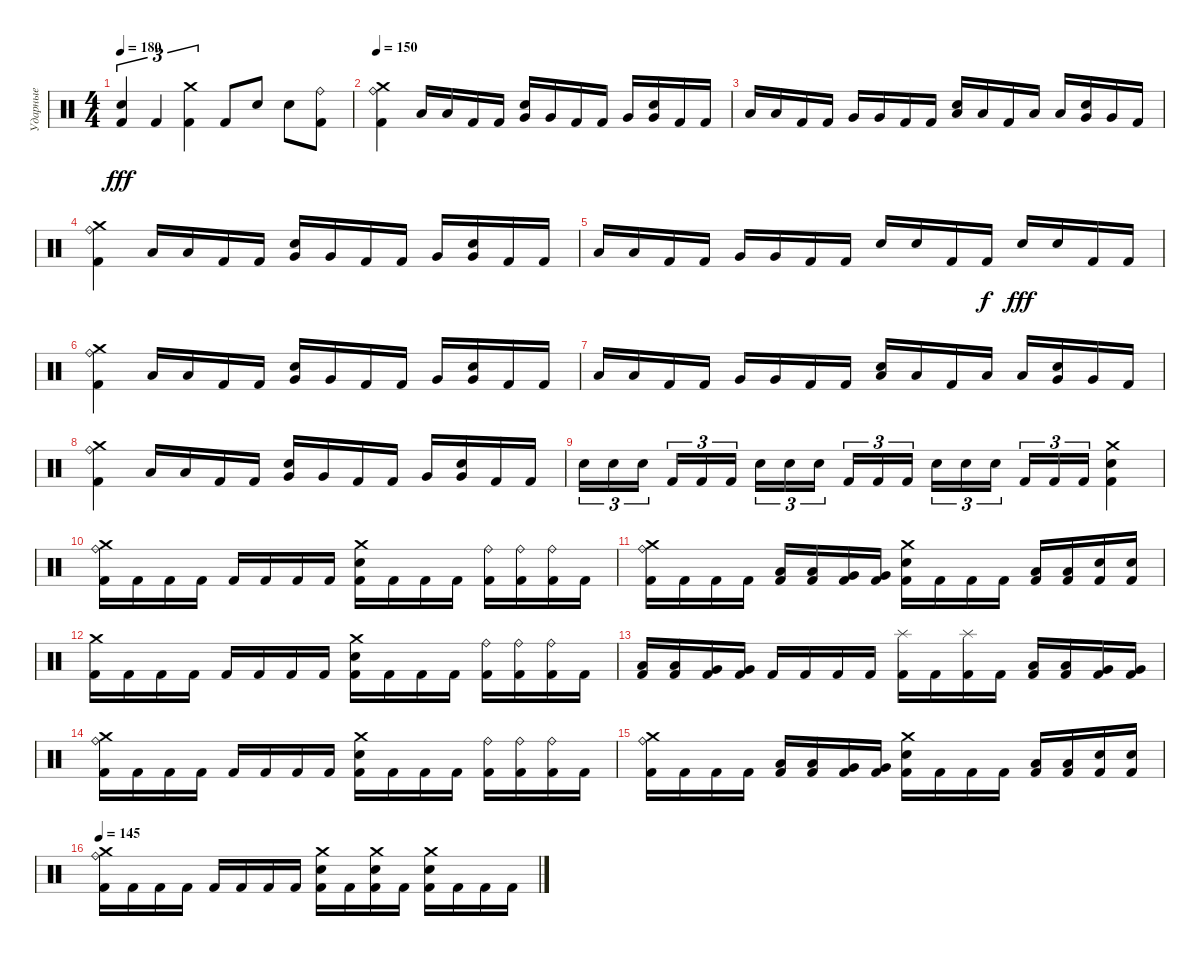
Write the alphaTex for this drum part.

\track ("Ударные" "Ударные") {instrument percussion}
\staff {score}
\articulation defaults
\ts (4 4)
\tempo 180
\clef neutral
\ks c
("Kick (hit) 2" "Electric Snare (hit)").4{tu (3 2) dy fff} "Kick (hit) 2".4{tu (3 2)} ("Kick (hit) 2" "Crash medium (hit)").4{tu (3 2)} "Kick (hit) 2".8 "Electric Snare (hit)".8 "Electric Snare (hit)".8 ("Kick (hit) 2" "Ride (bell)").8 |
\tempo 150
("Kick (hit) 2" "Ride (bell)" "Crash medium (hit)").4 "Low Tom (hit)".16 "Low Tom (hit)".16 "Kick (hit) 2".16 "Kick (hit) 2".16 ("Very Low Tom (hit)" "Electric Snare (hit)").16 "Very Low Tom (hit)".16 "Kick (hit) 2".16 "Kick (hit) 2".16 "Very Low Tom (hit)".16 ("Very Low Tom (hit)" "Electric Snare (hit)").16 "Kick (hit) 2".16 "Kick (hit) 2".16 |
"Low Tom (hit)".16 "Low Tom (hit)".16 "Kick (hit) 2".16 "Kick (hit) 2".16 "Very Low Tom (hit)".16 "Very Low Tom (hit)".16 "Kick (hit) 2".16 "Kick (hit) 2".16 ("Low Floor Tom (hit)" "Electric Snare (hit)").16 "Low Floor Tom (hit)".16 "Kick (hit) 2".16 "Low Tom (hit)".16 "Low Tom (hit)".16 ("Very Low Tom (hit)" "Electric Snare (hit)").16 "Very Low Tom (hit)".16 "Kick (hit) 2".16 |
("Kick (hit) 2" "Ride (bell)" "Crash medium (hit)").4 "Low Tom (hit)".16 "Low Tom (hit)".16 "Kick (hit) 2".16 "Kick (hit) 2".16 ("Very Low Tom (hit)" "Electric Snare (hit)").16 "Very Low Tom (hit)".16 "Kick (hit) 2".16 "Kick (hit) 2".16 "Very Low Tom (hit)".16 ("Very Low Tom (hit)" "Electric Snare (hit)").16 "Kick (hit) 2".16 "Kick (hit) 2".16 |
"Low Tom (hit)".16 "Low Tom (hit)".16 "Kick (hit) 2".16 "Kick (hit) 2".16 "Very Low Tom (hit)".16 "Very Low Tom (hit)".16 "Kick (hit) 2".16 "Kick (hit) 2".16 "Electric Snare (hit)".16 "Electric Snare (hit)".16 "Kick (hit) 2".16 "Kick (hit) 2".16{dy f} "Electric Snare (hit)".16{dy fff} "Electric Snare (hit)".16 "Kick (hit) 2".16 "Kick (hit) 2".16 |
("Kick (hit) 2" "Ride (bell)" "Crash medium (hit)").4 "Low Tom (hit)".16 "Low Tom (hit)".16 "Kick (hit) 2".16 "Kick (hit) 2".16 ("Very Low Tom (hit)" "Electric Snare (hit)").16 "Very Low Tom (hit)".16 "Kick (hit) 2".16 "Kick (hit) 2".16 "Very Low Tom (hit)".16 ("Very Low Tom (hit)" "Electric Snare (hit)").16 "Kick (hit) 2".16 "Kick (hit) 2".16 |
"Low Tom (hit)".16 "Low Tom (hit)".16 "Kick (hit) 2".16 "Kick (hit) 2".16 "Very Low Tom (hit)".16 "Very Low Tom (hit)".16 "Kick (hit) 2".16 "Kick (hit) 2".16 ("Low Floor Tom (hit)" "Electric Snare (hit)").16 "Low Floor Tom (hit)".16 "Kick (hit) 2".16 "Low Tom (hit)".16 "Low Tom (hit)".16 ("Very Low Tom (hit)" "Electric Snare (hit)").16 "Very Low Tom (hit)".16 "Kick (hit) 2".16 |
("Kick (hit) 2" "Ride (bell)" "Crash medium (hit)").4 "Low Tom (hit)".16 "Low Tom (hit)".16 "Kick (hit) 2".16 "Kick (hit) 2".16 ("Very Low Tom (hit)" "Electric Snare (hit)").16 "Very Low Tom (hit)".16 "Kick (hit) 2".16 "Kick (hit) 2".16 "Very Low Tom (hit)".16 ("Very Low Tom (hit)" "Electric Snare (hit)").16 "Kick (hit) 2".16 "Kick (hit) 2".16 |
"Electric Snare (hit)".16{tu (3 2)} "Electric Snare (hit)".16{tu (3 2)} "Electric Snare (hit)".16{tu (3 2) beam splitsecondary} "Kick (hit) 2".16{tu (3 2)} "Kick (hit) 2".16{tu (3 2)} "Kick (hit) 2".16{tu (3 2)} "Electric Snare (hit)".16{tu (3 2)} "Electric Snare (hit)".16{tu (3 2)} "Electric Snare (hit)".16{tu (3 2) beam splitsecondary} "Kick (hit) 2".16{tu (3 2)} "Kick (hit) 2".16{tu (3 2)} "Kick (hit) 2".16{tu (3 2)} "Electric Snare (hit)".16{tu (3 2)} "Electric Snare (hit)".16{tu (3 2)} "Electric Snare (hit)".16{tu (3 2) beam splitsecondary} "Kick (hit) 2".16{tu (3 2)} "Kick (hit) 2".16{tu (3 2)} "Kick (hit) 2".16{tu (3 2)} ("Kick (hit) 2" "Crash medium (hit)" "Electric Snare (hit)").4 |
("Ride (bell)" "Crash medium (hit)" "Kick (hit) 2").16 "Kick (hit) 2".16 "Kick (hit) 2".16 "Kick (hit) 2".16 "Kick (hit) 2".16 "Kick (hit) 2".16 "Kick (hit) 2".16 "Kick (hit) 2".16 ("Crash medium (hit)" "Electric Snare (hit)" "Kick (hit) 2").16 "Kick (hit) 2".16 "Kick (hit) 2".16 "Kick (hit) 2".16 ("Ride (bell)" "Kick (hit) 2").16 ("Ride (bell)" "Kick (hit) 2").16 ("Ride (bell)" "Kick (hit) 2").16 "Kick (hit) 2".16 |
("Ride (bell)" "Crash medium (hit)" "Kick (hit) 2").16 "Kick (hit) 2".16 "Kick (hit) 2".16 "Kick (hit) 2".16 ("Low Tom (hit)" "Kick (hit) 2").16 ("Low Tom (hit)" "Kick (hit) 2").16 ("Very Low Tom (hit)" "Kick (hit) 2").16 ("Very Low Tom (hit)" "Kick (hit) 2").16 ("Electric Snare (hit)" "Crash medium (hit)" "Kick (hit) 2").16 "Kick (hit) 2".16 "Kick (hit) 2".16 "Kick (hit) 2".16 ("Low Tom (hit)" "Kick (hit) 2").16 ("Low Tom (hit)" "Kick (hit) 2").16 ("Electric Snare (hit)" "Kick (hit) 2").16 ("Electric Snare (hit)" "Kick (hit) 2").16 |
("Crash medium (hit)" "Kick (hit) 2").16 "Kick (hit) 2".16 "Kick (hit) 2".16 "Kick (hit) 2".16 "Kick (hit) 2".16 "Kick (hit) 2".16 "Kick (hit) 2".16 "Kick (hit) 2".16 ("Crash medium (hit)" "Electric Snare (hit)" "Kick (hit) 2").16 "Kick (hit) 2".16 "Kick (hit) 2".16 "Kick (hit) 2".16 ("Ride (bell)" "Kick (hit) 2").16 ("Ride (bell)" "Kick (hit) 2").16 ("Ride (bell)" "Kick (hit) 2").16 "Kick (hit) 2".16 |
("Low Tom (hit)" "Kick (hit) 2").16 ("Low Tom (hit)" "Kick (hit) 2").16 ("Very Low Tom (hit)" "Kick (hit) 2").16 ("Very Low Tom (hit)" "Kick (hit) 2").16 "Kick (hit) 2".16 "Kick (hit) 2".16 "Kick (hit) 2".16 "Kick (hit) 2".16 ("Splash (hit)" "Kick (hit) 2").16 "Kick (hit) 2".16 ("Splash (hit)" "Kick (hit) 2").16 "Kick (hit) 2".16 ("Low Tom (hit)" "Kick (hit) 2").16 ("Low Tom (hit)" "Kick (hit) 2").16 ("Very Low Tom (hit)" "Kick (hit) 2").16 ("Very Low Tom (hit)" "Kick (hit) 2").16 |
("Ride (bell)" "Crash medium (hit)" "Kick (hit) 2").16 "Kick (hit) 2".16 "Kick (hit) 2".16 "Kick (hit) 2".16 "Kick (hit) 2".16 "Kick (hit) 2".16 "Kick (hit) 2".16 "Kick (hit) 2".16 ("Crash medium (hit)" "Electric Snare (hit)" "Kick (hit) 2").16 "Kick (hit) 2".16 "Kick (hit) 2".16 "Kick (hit) 2".16 ("Ride (bell)" "Kick (hit) 2").16 ("Ride (bell)" "Kick (hit) 2").16 ("Ride (bell)" "Kick (hit) 2").16 "Kick (hit) 2".16 |
("Ride (bell)" "Crash medium (hit)" "Kick (hit) 2").16 "Kick (hit) 2".16 "Kick (hit) 2".16 "Kick (hit) 2".16 ("Low Tom (hit)" "Kick (hit) 2").16 ("Low Tom (hit)" "Kick (hit) 2").16 ("Very Low Tom (hit)" "Kick (hit) 2").16 ("Very Low Tom (hit)" "Kick (hit) 2").16 ("Electric Snare (hit)" "Crash medium (hit)" "Kick (hit) 2").16 "Kick (hit) 2".16 "Kick (hit) 2".16 "Kick (hit) 2".16 ("Low Tom (hit)" "Kick (hit) 2").16 ("Low Tom (hit)" "Kick (hit) 2").16 ("Electric Snare (hit)" "Kick (hit) 2").16 ("Electric Snare (hit)" "Kick (hit) 2").16 |
\tempo 145
("Ride (bell)" "Crash medium (hit)" "Kick (hit) 2").16 "Kick (hit) 2".16 "Kick (hit) 2".16 "Kick (hit) 2".16 "Kick (hit) 2".16 "Kick (hit) 2".16 "Kick (hit) 2".16 "Kick (hit) 2".16 ("Crash medium (hit)" "Electric Snare (hit)" "Kick (hit) 2").16 "Kick (hit) 2".16 ("Crash medium (hit)" "Electric Snare (hit)" "Kick (hit) 2").16 "Kick (hit) 2".16 ("Crash medium (hit)" "Electric Snare (hit)" "Kick (hit) 2").16 "Kick (hit) 2".16 "Kick (hit) 2".16 "Kick (hit) 2".16
